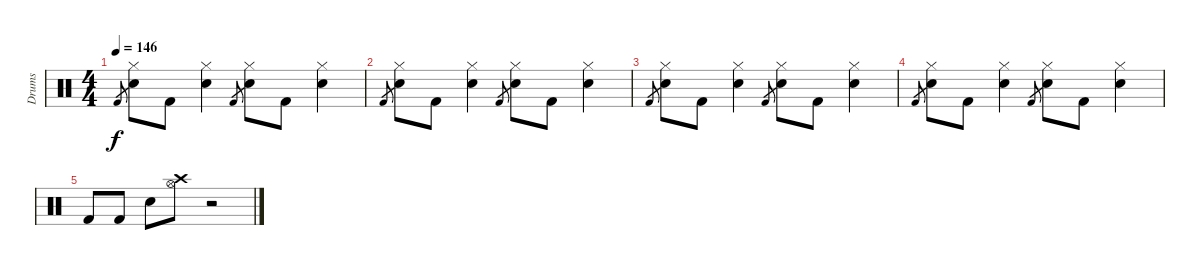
\track ("Drums" "Drums") {instrument percussion}
\staff {score}
\articulation defaults
\ts (4 4)
\tempo 146
\clef neutral
\ks c "Kick (hit) 2".8{gr dy f}
("Hi-Hat (closed)" "Snare (hit) 2").8 "Kick (hit) 2".8 ("Hi-Hat (closed)" "Snare (hit) 2").4 "Kick (hit) 2".8{gr} ("Hi-Hat (closed)" "Snare (hit) 2").8 "Kick (hit) 2".8 ("Hi-Hat (closed)" "Snare (hit) 2").4 |
"Kick (hit) 2".8{gr} ("Hi-Hat (closed)" "Snare (hit) 2").8 "Kick (hit) 2".8 ("Hi-Hat (closed)" "Snare (hit) 2").4 "Kick (hit) 2".8{gr} ("Hi-Hat (closed)" "Snare (hit) 2").8 "Kick (hit) 2".8 ("Hi-Hat (closed)" "Snare (hit) 2").4 |
"Kick (hit) 2".8{gr} ("Hi-Hat (closed)" "Snare (hit) 2").8 "Kick (hit) 2".8 ("Hi-Hat (closed)" "Snare (hit) 2").4 "Kick (hit) 2".8{gr} ("Hi-Hat (closed)" "Snare (hit) 2").8 "Kick (hit) 2".8 ("Hi-Hat (closed)" "Snare (hit) 2").4 |
"Kick (hit) 2".8{gr} ("Hi-Hat (closed)" "Snare (hit) 2").8 "Kick (hit) 2".8 ("Hi-Hat (closed)" "Snare (hit) 2").4 "Kick (hit) 2".8{gr} ("Hi-Hat (closed)" "Snare (hit) 2").8 "Kick (hit) 2".8 ("Hi-Hat (closed)" "Snare (hit) 2").4 |
"Kick (hit) 2".8 "Kick (hit) 2".8 "Snare (hit) 2".8 ("Crash high (hit)" "Hi-Hat (open)").8 r.2
